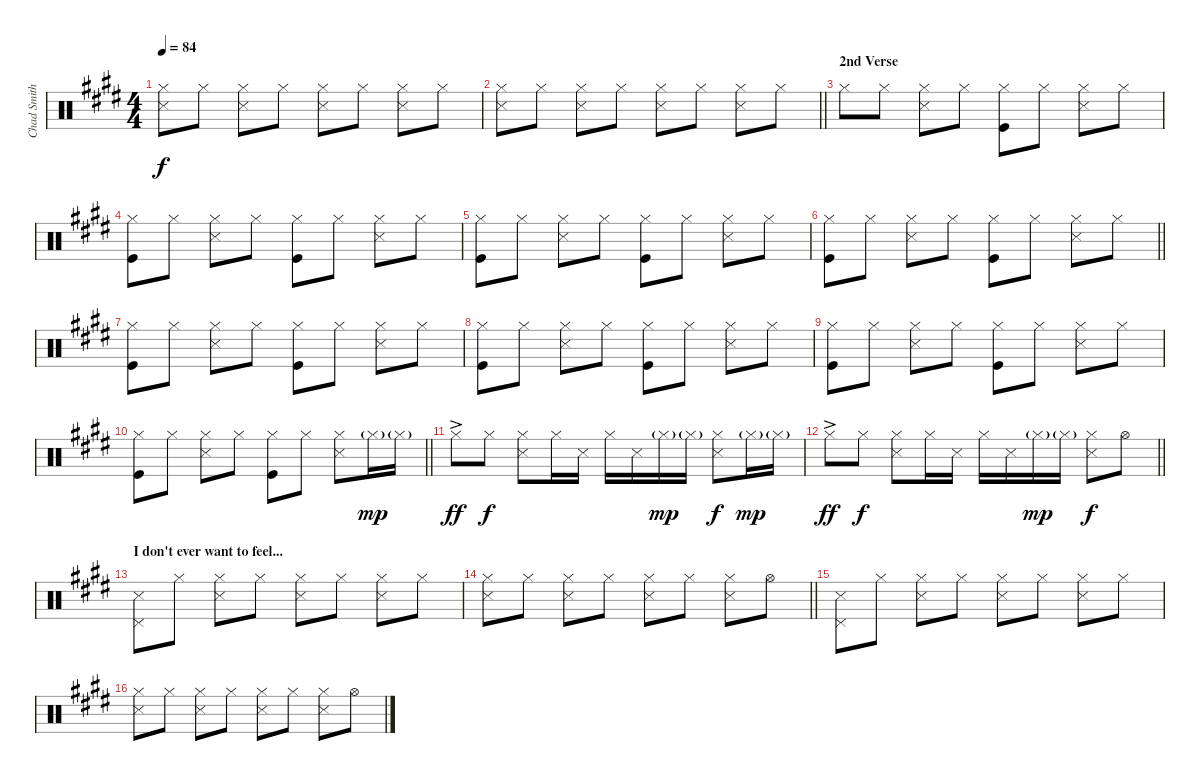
\track ("Chad Smith" "Chad Smith") {instrument percussion}
\staff {score}
\articulation defaults
\ts (4 4)
\tempo 84
\clef neutral
\ks e
("Snare (side stick) 3" "Hi-Hat (closed)").8{dy f} "Hi-Hat (closed)".8 ("Snare (side stick) 3" "Hi-Hat (closed)").8 "Hi-Hat (closed)".8 ("Snare (side stick) 3" "Hi-Hat (closed)").8 "Hi-Hat (closed)".8 ("Snare (side stick) 3" "Hi-Hat (closed)").8 "Hi-Hat (closed)".8 |
\barLineRight lightlight
\ks c#minor
("Snare (side stick) 3" "Hi-Hat (closed)").8 "Hi-Hat (closed)".8 ("Snare (side stick) 3" "Hi-Hat (closed)").8 "Hi-Hat (closed)".8 ("Snare (side stick) 3" "Hi-Hat (closed)").8 "Hi-Hat (closed)".8 ("Snare (side stick) 3" "Hi-Hat (closed)").8 "Hi-Hat (closed)".8 |
\section ("" "2nd Verse")
"Hi-Hat (closed)".8 "Hi-Hat (closed)".8 ("Snare (side stick) 3" "Hi-Hat (closed)").8 "Hi-Hat (closed)".8 ("Kick (hit)" "Hi-Hat (closed)").8 "Hi-Hat (closed)".8 ("Snare (side stick) 3" "Hi-Hat (closed)").8 "Hi-Hat (closed)".8 |
\ks e
("Kick (hit)" "Hi-Hat (closed)").8 "Hi-Hat (closed)".8 ("Snare (side stick) 3" "Hi-Hat (closed)").8 "Hi-Hat (closed)".8 ("Kick (hit)" "Hi-Hat (closed)").8 "Hi-Hat (closed)".8 ("Snare (side stick) 3" "Hi-Hat (closed)").8 "Hi-Hat (closed)".8 |
\ks c#minor
("Kick (hit)" "Hi-Hat (closed)").8 "Hi-Hat (closed)".8 ("Snare (side stick) 3" "Hi-Hat (closed)").8 "Hi-Hat (closed)".8 ("Kick (hit)" "Hi-Hat (closed)").8 "Hi-Hat (closed)".8 ("Snare (side stick) 3" "Hi-Hat (closed)").8 "Hi-Hat (closed)".8 |
\barLineRight lightlight
("Kick (hit)" "Hi-Hat (closed)").8 "Hi-Hat (closed)".8 ("Snare (side stick) 3" "Hi-Hat (closed)").8 "Hi-Hat (closed)".8 ("Kick (hit)" "Hi-Hat (closed)").8 "Hi-Hat (closed)".8 ("Snare (side stick) 3" "Hi-Hat (closed)").8 "Hi-Hat (closed)".8 |
("Kick (hit)" "Hi-Hat (closed)").8 "Hi-Hat (closed)".8 ("Snare (side stick) 3" "Hi-Hat (closed)").8 "Hi-Hat (closed)".8 ("Kick (hit)" "Hi-Hat (closed)").8 "Hi-Hat (closed)".8 ("Snare (side stick) 3" "Hi-Hat (closed)").8 "Hi-Hat (closed)".8 |
\ks e
("Kick (hit)" "Hi-Hat (closed)").8 "Hi-Hat (closed)".8 ("Snare (side stick) 3" "Hi-Hat (closed)").8 "Hi-Hat (closed)".8 ("Kick (hit)" "Hi-Hat (closed)").8 "Hi-Hat (closed)".8 ("Snare (side stick) 3" "Hi-Hat (closed)").8 "Hi-Hat (closed)".8 |
\ks c#minor
("Kick (hit)" "Hi-Hat (closed)").8 "Hi-Hat (closed)".8 ("Snare (side stick) 3" "Hi-Hat (closed)").8 "Hi-Hat (closed)".8 ("Kick (hit)" "Hi-Hat (closed)").8 "Hi-Hat (closed)".8 ("Snare (side stick) 3" "Hi-Hat (closed)").8 "Hi-Hat (closed)".8 |
\barLineRight lightlight
\ks e
("Kick (hit)" "Hi-Hat (closed)").8 "Hi-Hat (closed)".8 ("Snare (side stick) 3" "Hi-Hat (closed)").8 "Hi-Hat (closed)".8 ("Kick (hit)" "Hi-Hat (closed)").8 "Hi-Hat (closed)".8 ("Snare (side stick) 3" "Hi-Hat (closed)").8 "Hi-Hat (closed)"{g}.16{dy mp} "Hi-Hat (closed)"{g}.16 |
\section ("" "")
\ks c#minor "Hi-Hat (closed)"{ac}.8{dy ff} "Hi-Hat (closed)".8{dy f}
("Hi-Hat (closed)" "Snare (side stick) 3").8 "Hi-Hat (closed)".16 "Snare (side stick) 3".16 "Hi-Hat (closed)".16 "Snare (side stick) 3".16 "Hi-Hat (closed)"{g}.16{dy mp} "Hi-Hat (closed)"{g}.16 ("Snare (side stick) 3" "Hi-Hat (closed)").8{dy f} "Hi-Hat (closed)"{g}.16{dy mp} "Hi-Hat (closed)"{g}.16 |
\barLineRight lightlight
\ks e "Hi-Hat (closed)"{ac}.8{dy ff} "Hi-Hat (closed)".8{dy f}
("Hi-Hat (closed)" "Snare (side stick) 3").8 "Hi-Hat (closed)".16 "Snare (side stick) 3".16 "Hi-Hat (closed)".16 "Snare (side stick) 3".16 "Hi-Hat (closed)"{g}.16{dy mp} "Hi-Hat (closed)"{g}.16 ("Snare (side stick) 3" "Hi-Hat (closed)").8{dy f} "Hi-Hat (open)".8 |
\section ("" "I don't ever want to feel...")
\ks c#minor
("Snare (side stick) 3" "Pedal Hi-Hat (hit)").8 "Hi-Hat (closed)".8 ("Snare (side stick) 3" "Hi-Hat (closed)").8 "Hi-Hat (closed)".8 ("Hi-Hat (closed)" "Snare (side stick) 3").8 "Hi-Hat (closed)".8 ("Hi-Hat (closed)" "Snare (side stick) 3").8 "Hi-Hat (closed)".8 |
\barLineRight lightlight
("Snare (side stick) 3" "Hi-Hat (closed)").8 "Hi-Hat (closed)".8 ("Snare (side stick) 3" "Hi-Hat (closed)").8 "Hi-Hat (closed)".8 ("Hi-Hat (closed)" "Snare (side stick) 3").8 "Hi-Hat (closed)".8 ("Hi-Hat (closed)" "Snare (side stick) 3").8 "Hi-Hat (open)".8 |
("Snare (side stick) 3" "Pedal Hi-Hat (hit)").8 "Hi-Hat (closed)".8 ("Snare (side stick) 3" "Hi-Hat (closed)").8 "Hi-Hat (closed)".8 ("Hi-Hat (closed)" "Snare (side stick) 3").8 "Hi-Hat (closed)".8 ("Hi-Hat (closed)" "Snare (side stick) 3").8 "Hi-Hat (closed)".8 |
\ks e
("Snare (side stick) 3" "Hi-Hat (closed)").8 "Hi-Hat (closed)".8 ("Snare (side stick) 3" "Hi-Hat (closed)").8 "Hi-Hat (closed)".8 ("Hi-Hat (closed)" "Snare (side stick) 3").8 "Hi-Hat (closed)".8 ("Hi-Hat (closed)" "Snare (side stick) 3").8 "Hi-Hat (open)".8
